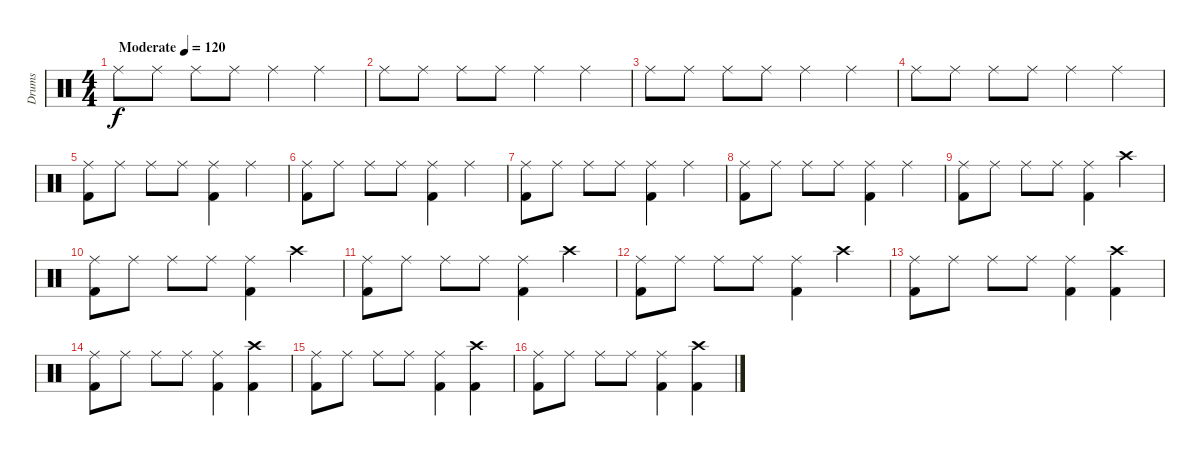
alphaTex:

\track ("Drums" "Drums") {instrument percussion}
\staff {score}
\articulation defaults
\ts (4 4)
\tempo (120 "Moderate")
\clef neutral
\ks c "Ride (middle)".8{dy f} "Ride (middle)".8 "Ride (middle)".8 "Ride (middle)".8 "Ride (middle)".4 "Ride (middle)".4
|
"Ride (middle)".8 "Ride (middle)".8 "Ride (middle)".8 "Ride (middle)".8 "Ride (middle)".4 "Ride (middle)".4 |
"Ride (middle)".8 "Ride (middle)".8 "Ride (middle)".8 "Ride (middle)".8 "Ride (middle)".4 "Ride (middle)".4 |
"Ride (middle)".8 "Ride (middle)".8 "Ride (middle)".8 "Ride (middle)".8 "Ride (middle)".4 "Ride (middle)".4 |
("Ride (middle)" "Kick (hit) 2").8 "Ride (middle)".8 "Ride (middle)".8 "Ride (middle)".8 ("Ride (middle)" "Kick (hit) 2").4 "Ride (middle)".4 |
("Ride (middle)" "Kick (hit) 2").8 "Ride (middle)".8 "Ride (middle)".8 "Ride (middle)".8 ("Ride (middle)" "Kick (hit) 2").4 "Ride (middle)".4 |
("Ride (middle)" "Kick (hit) 2").8 "Ride (middle)".8 "Ride (middle)".8 "Ride (middle)".8 ("Ride (middle)" "Kick (hit) 2").4 "Ride (middle)".4 |
("Ride (middle)" "Kick (hit) 2").8 "Ride (middle)".8 "Ride (middle)".8 "Ride (middle)".8 ("Ride (middle)" "Kick (hit) 2").4 "Ride (middle)".4 |
("Ride (middle)" "Kick (hit) 2").8 "Ride (middle)".8 "Ride (middle)".8 "Ride (middle)".8 ("Ride (middle)" "Kick (hit) 2").4 "Crash high (hit)".4 |
("Ride (middle)" "Kick (hit) 2").8 "Ride (middle)".8 "Ride (middle)".8 "Ride (middle)".8 ("Ride (middle)" "Kick (hit) 2").4 "Crash high (hit)".4 |
("Ride (middle)" "Kick (hit) 2").8 "Ride (middle)".8 "Ride (middle)".8 "Ride (middle)".8 ("Ride (middle)" "Kick (hit) 2").4 "Crash high (hit)".4 |
("Ride (middle)" "Kick (hit) 2").8 "Ride (middle)".8 "Ride (middle)".8 "Ride (middle)".8 ("Ride (middle)" "Kick (hit) 2").4 "Crash high (hit)".4 |
("Ride (middle)" "Kick (hit) 2").8 "Ride (middle)".8 "Ride (middle)".8 "Ride (middle)".8 ("Ride (middle)" "Kick (hit) 2").4 ("Crash high (hit)" "Kick (hit) 2").4 |
("Ride (middle)" "Kick (hit) 2").8 "Ride (middle)".8 "Ride (middle)".8 "Ride (middle)".8 ("Ride (middle)" "Kick (hit) 2").4 ("Crash high (hit)" "Kick (hit) 2").4 |
("Ride (middle)" "Kick (hit) 2").8 "Ride (middle)".8 "Ride (middle)".8 "Ride (middle)".8 ("Ride (middle)" "Kick (hit) 2").4 ("Crash high (hit)" "Kick (hit) 2").4 |
("Ride (middle)" "Kick (hit) 2").8 "Ride (middle)".8 "Ride (middle)".8 "Ride (middle)".8 ("Ride (middle)" "Kick (hit) 2").4 ("Crash high (hit)" "Kick (hit) 2").4
